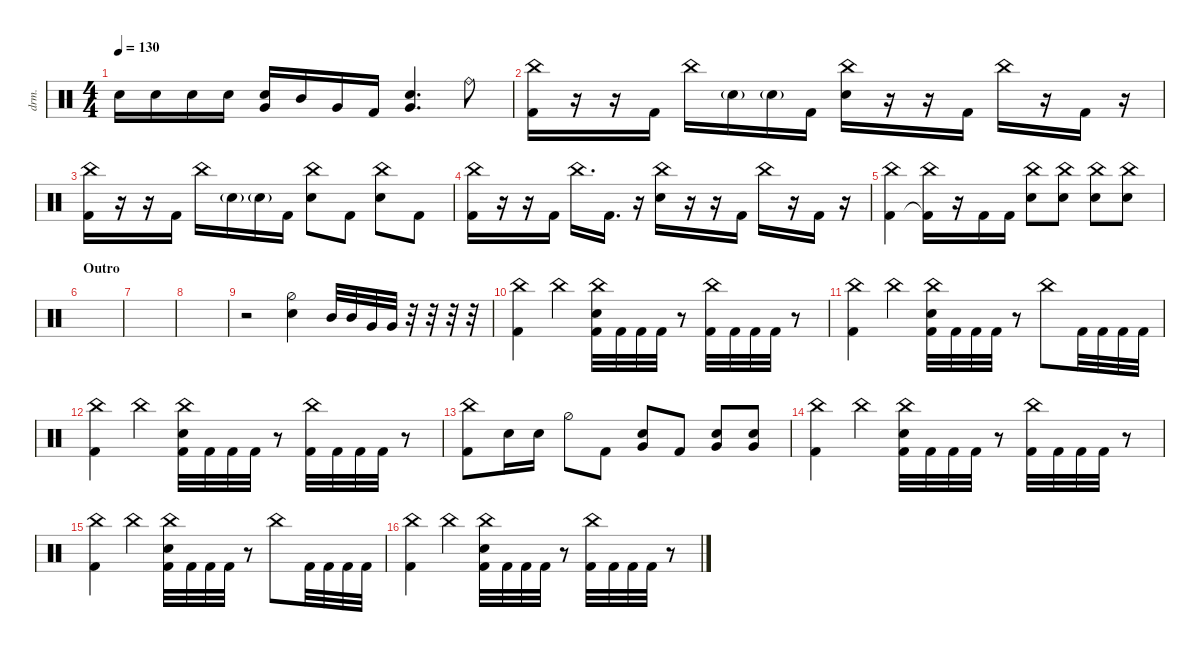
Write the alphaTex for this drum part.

\defaultSystemsLayout 4
\hideDynamics
\bracketExtendMode nobrackets
\track ("Drums - Šimon" "drm.") {instrument percussion}
\staff {score}
\articulation defaults
\ts (4 4)
\tempo 130
\clef neutral
\ks c "Snare (hit) 2".16{dy mp beam Down} "Snare (hit) 2".16{beam Down} "Snare (hit) 2".16{beam Down} "Snare (hit) 2".16{beam Down}
("Snare (hit) 2" "Very Low Tom (hit)").16{dy ff beam Up} "Mid Tom (hit)".16{beam Up} "Very Low Tom (hit)".16{beam Up} "Kick (hit) 2".16{beam Up} ("Snare (hit) 2" "Very Low Tom (hit)").4{d beam Up} "Ride (bell)".8{beam Down} |
("China (hit)" "Kick (hit) 2").16{beam Down} r.16{beam Down} r.16{beam Down} "Kick (hit) 2".16{beam Down} "China (hit)".16{beam Down} "Snare (hit) 2"{g}.16{beam Down} "Snare (hit) 2"{g}.16{beam Down} "Kick (hit) 2".16{beam Down} ("Snare (hit) 2" "China (hit)").16{beam Down} r.16{beam Down} r.16{beam Down} "Kick (hit) 2".16{beam Down} "China (hit)".16{beam Down} r.16{beam Down} "Kick (hit) 2".16{beam Down} r.16{beam Down} |
("China (hit)" "Kick (hit) 2").16{beam Down} r.16{beam Down} r.16{beam Down} "Kick (hit) 2".16{beam Down} "China (hit)".16{beam Down} "Snare (hit) 2"{g}.16{beam Down} "Snare (hit) 2"{g}.16{beam Down} "Kick (hit) 2".16{beam Down} ("Snare (hit) 2" "China (hit)").8{beam Down} "Kick (hit) 2".8{beam Down} ("China (hit)" "Snare (hit) 2").8{beam Down} "Kick (hit) 2".8{beam Down} |
("China (hit)" "Kick (hit) 2").16{beam Down} r.16{beam Down} r.16{beam Down} "Kick (hit) 2".16{beam Down} "China (hit)".16{d beam Down} "Kick (hit) 2".16{d beam Down} r.16{beam Down} ("Snare (hit) 2" "China (hit)").16{beam Down} r.16{beam Down} r.16{beam Down} "Kick (hit) 2".16{beam Down} "China (hit)".16{beam Down} r.16{beam Down} "Kick (hit) 2".16{beam Down} r.16{beam Down} |
("China (hit)" "Kick (hit) 2").4{beam Down} ("China (hit)" "Kick (hit) 2"{t}).16{beam Down} r.16{beam Down} "Kick (hit) 2".16{beam Down} "Kick (hit) 2".16{beam Down} ("Snare (hit) 2" "China (hit)").8{beam Down} ("Snare (hit) 2" "China (hit)").8{beam Down} ("Snare (hit) 2" "China (hit)").8{beam Down} ("Snare (hit) 2" "China (choke)").8{beam Down} |
\section ("" "Outro")
|
|
|
r.2{beam Down} ("Snare (hit) 2" "Hi-Hat (half)").4{beam Down} "Mid Tom (hit)".32{beam Up} "Mid Tom (hit)".32{beam Up} "Very Low Tom (hit)".32{beam Up} "Very Low Tom (hit)".32{beam Up} r.32{beam Down} r.32{beam Down} r.32{beam Down} r.32{beam Down} |
("Kick (hit) 2" "China (hit)").4{beam Down} "China (hit)".4{beam Down} ("China (hit)" "Snare (hit) 2" "Kick (hit) 2").32{beam Down} "Kick (hit) 2".32{beam Down} "Kick (hit) 2".32{beam Down} "Kick (hit) 2".32{beam Down} r.8{beam Down} ("China (hit)" "Kick (hit) 2").32{beam Down} "Kick (hit) 2".32{beam Down} "Kick (hit) 2".32{beam Down} "Kick (hit) 2".32{beam Down} r.8{beam Down} |
("Kick (hit) 2" "China (hit)").4{beam Down} "China (hit)".4{beam Down} ("China (hit)" "Snare (hit) 2" "Kick (hit) 2").32{beam Down} "Kick (hit) 2".32{beam Down} "Kick (hit) 2".32{beam Down} "Kick (hit) 2".32{beam Down} r.8{beam Down} "China (hit)".8{beam Down} "Kick (hit) 2".32{beam Down} "Kick (hit) 2".32{beam Down} "Kick (hit) 2".32{beam Down} "Kick (hit) 2".32{beam Down} |
("Kick (hit) 2" "China (hit)").4{beam Down} "China (hit)".4{beam Down} ("China (hit)" "Snare (hit) 2" "Kick (hit) 2").32{beam Down} "Kick (hit) 2".32{beam Down} "Kick (hit) 2".32{beam Down} "Kick (hit) 2".32{beam Down} r.8{beam Down} ("China (hit)" "Kick (hit) 2").32{beam Down} "Kick (hit) 2".32{beam Down} "Kick (hit) 2".32{beam Down} "Kick (hit) 2".32{beam Down} r.8{beam Down} |
("Kick (hit) 2" "China (hit)").8{beam Down} "Snare (hit) 2".16{beam Down} "Snare (hit) 2".16{beam Down} "Hi-Hat (half)".8{beam Down} "Kick (hit) 2".8{beam Down} ("Snare (hit) 2" "Very Low Tom (hit)").8{beam Up} "Kick (hit) 2".8{beam Up} ("Snare (hit) 2" "Very Low Tom (hit)").8{beam Up} ("Snare (hit) 2" "Very Low Tom (hit)").8{beam Up} |
("Kick (hit) 2" "China (hit)").4{beam Down} "China (hit)".4{beam Down} ("China (hit)" "Snare (hit) 2" "Kick (hit) 2").32{beam Down} "Kick (hit) 2".32{beam Down} "Kick (hit) 2".32{beam Down} "Kick (hit) 2".32{beam Down} r.8{beam Down} ("China (hit)" "Kick (hit) 2").32{beam Down} "Kick (hit) 2".32{beam Down} "Kick (hit) 2".32{beam Down} "Kick (hit) 2".32{beam Down} r.8{beam Down} |
("Kick (hit) 2" "China (hit)").4{beam Down} "China (hit)".4{beam Down} ("China (hit)" "Snare (hit) 2" "Kick (hit) 2").32{beam Down} "Kick (hit) 2".32{beam Down} "Kick (hit) 2".32{beam Down} "Kick (hit) 2".32{beam Down} r.8{beam Down} "China (hit)".8{beam Down} "Kick (hit) 2".32{beam Down} "Kick (hit) 2".32{beam Down} "Kick (hit) 2".32{beam Down} "Kick (hit) 2".32{beam Down} |
("Kick (hit) 2" "China (hit)").4{beam Down} "China (hit)".4{beam Down} ("China (hit)" "Snare (hit) 2" "Kick (hit) 2").32{beam Down} "Kick (hit) 2".32{beam Down} "Kick (hit) 2".32{beam Down} "Kick (hit) 2".32{beam Down} r.8{beam Down} ("China (hit)" "Kick (hit) 2").32{beam Down} "Kick (hit) 2".32{beam Down} "Kick (hit) 2".32{beam Down} "Kick (hit) 2".32{beam Down} r.8{beam Down}
